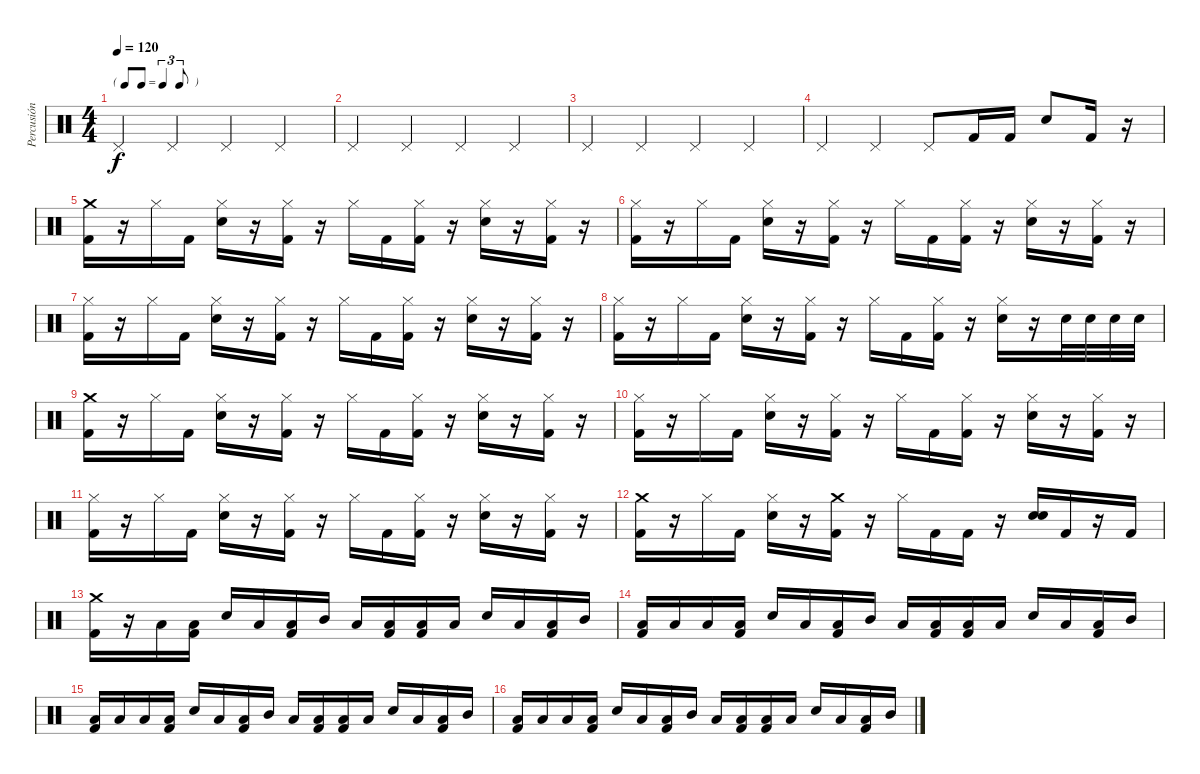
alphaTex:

\track ("Percusión" "Percusión") {instrument percussion}
\staff {score}
\articulation defaults
\ts (4 4)
\tf triplet8th
\tempo 120
\clef neutral
\ks c "Pedal Hi-Hat (hit)".4{dy f} "Pedal Hi-Hat (hit)".4 "Pedal Hi-Hat (hit)".4 "Pedal Hi-Hat (hit)".4
|
"Pedal Hi-Hat (hit)".4 "Pedal Hi-Hat (hit)".4 "Pedal Hi-Hat (hit)".4 "Pedal Hi-Hat (hit)".4 |
"Pedal Hi-Hat (hit)".4 "Pedal Hi-Hat (hit)".4 "Pedal Hi-Hat (hit)".4 "Pedal Hi-Hat (hit)".4 |
"Pedal Hi-Hat (hit)".4 "Pedal Hi-Hat (hit)".4 "Pedal Hi-Hat (hit)".8 "Kick (hit) 2".16 "Kick (hit) 2".16 "Snare (hit) 2".8 "Kick (hit) 2".16 r.16 |
("Crash medium (hit)" "Kick (hit) 2").16 r.16 "Hi-Hat (closed)".16 "Kick (hit) 2".16 ("Hi-Hat (closed)" "Snare (hit) 2").16 r.16 ("Hi-Hat (closed)" "Kick (hit) 2").16 r.16 "Hi-Hat (closed)".16 "Kick (hit) 2".16 ("Hi-Hat (closed)" "Kick (hit) 2").16 r.16 ("Hi-Hat (closed)" "Snare (hit) 2").16 r.16 ("Hi-Hat (closed)" "Kick (hit) 2").16 r.16 |
("Hi-Hat (closed)" "Kick (hit) 2").16 r.16 "Hi-Hat (closed)".16 "Kick (hit) 2".16 ("Hi-Hat (closed)" "Snare (hit) 2").16 r.16 ("Hi-Hat (closed)" "Kick (hit) 2").16 r.16 "Hi-Hat (closed)".16 "Kick (hit) 2".16 ("Hi-Hat (closed)" "Kick (hit) 2").16 r.16 ("Hi-Hat (closed)" "Snare (hit) 2").16 r.16 ("Hi-Hat (closed)" "Kick (hit) 2").16 r.16 |
("Hi-Hat (closed)" "Kick (hit) 2").16 r.16 "Hi-Hat (closed)".16 "Kick (hit) 2".16 ("Hi-Hat (closed)" "Snare (hit) 2").16 r.16 ("Hi-Hat (closed)" "Kick (hit) 2").16 r.16 "Hi-Hat (closed)".16 "Kick (hit) 2".16 ("Hi-Hat (closed)" "Kick (hit) 2").16 r.16 ("Hi-Hat (closed)" "Snare (hit) 2").16 r.16 ("Hi-Hat (closed)" "Kick (hit) 2").16 r.16 |
("Hi-Hat (closed)" "Kick (hit) 2").16 r.16 "Hi-Hat (closed)".16 "Kick (hit) 2".16 ("Hi-Hat (closed)" "Snare (hit) 2").16 r.16 ("Hi-Hat (closed)" "Kick (hit) 2").16 r.16 "Hi-Hat (closed)".16 "Kick (hit) 2".16 ("Hi-Hat (closed)" "Kick (hit) 2").16 r.16 ("Hi-Hat (closed)" "Snare (hit) 2").16 r.16 "Snare (hit) 2".32 "Snare (hit) 2".32 "Snare (hit) 2".32 "Snare (hit) 2".32 |
("Crash medium (hit)" "Kick (hit) 2").16 r.16 "Hi-Hat (closed)".16 "Kick (hit) 2".16 ("Hi-Hat (closed)" "Snare (hit) 2").16 r.16 ("Hi-Hat (closed)" "Kick (hit) 2").16 r.16 "Hi-Hat (closed)".16 "Kick (hit) 2".16 ("Hi-Hat (closed)" "Kick (hit) 2").16 r.16 ("Hi-Hat (closed)" "Snare (hit) 2").16 r.16 ("Hi-Hat (closed)" "Kick (hit) 2").16 r.16 |
("Hi-Hat (closed)" "Kick (hit) 2").16 r.16 "Hi-Hat (closed)".16 "Kick (hit) 2".16 ("Hi-Hat (closed)" "Snare (hit) 2").16 r.16 ("Hi-Hat (closed)" "Kick (hit) 2").16 r.16 "Hi-Hat (closed)".16 "Kick (hit) 2".16 ("Hi-Hat (closed)" "Kick (hit) 2").16 r.16 ("Hi-Hat (closed)" "Snare (hit) 2").16 r.16 ("Hi-Hat (closed)" "Kick (hit) 2").16 r.16 |
("Hi-Hat (closed)" "Kick (hit) 2").16 r.16 "Hi-Hat (closed)".16 "Kick (hit) 2".16 ("Hi-Hat (closed)" "Snare (hit) 2").16 r.16 ("Hi-Hat (closed)" "Kick (hit) 2").16 r.16 "Hi-Hat (closed)".16 "Kick (hit) 2".16 ("Hi-Hat (closed)" "Kick (hit) 2").16 r.16 ("Hi-Hat (closed)" "Snare (hit) 2").16 r.16 ("Hi-Hat (closed)" "Kick (hit) 2").16 r.16 |
("Crash medium (hit)" "Kick (hit) 2").16 r.16 "Hi-Hat (closed)".16 "Kick (hit) 2".16 ("Hi-Hat (closed)" "Snare (hit) 2").16 r.16 ("Crash medium (hit)" "Kick (hit) 2").16 r.16 "Hi-Hat (closed)".16 "Kick (hit) 2".16 "Kick (hit) 2".16 r.16 ("Snare (hit) 2" "Snare (hit) 2").16 "Kick (hit) 2".16 r.16 "Kick (hit) 2".16 |
("Crash medium (hit)" "Kick (hit) 2").16 r.16 "Low Tom (hit)".16 ("Low Tom (hit)" "Kick (hit) 2").16 "Snare (hit) 2".16 "Low Tom (hit)".16 ("Low Tom (hit)" "Kick (hit) 2").16 "Mid Tom (hit)".16 "Low Tom (hit)".16 ("Low Tom (hit)" "Kick (hit) 2").16 ("Low Tom (hit)" "Kick (hit) 2").16 "Low Tom (hit)".16 "Snare (hit) 2".16 "Low Tom (hit)".16 ("Low Tom (hit)" "Kick (hit) 2").16 "Mid Tom (hit)".16 |
("Low Tom (hit)" "Kick (hit) 2").16 "Low Tom (hit)".16 "Low Tom (hit)".16 ("Low Tom (hit)" "Kick (hit) 2").16 "Snare (hit) 2".16 "Low Tom (hit)".16 ("Low Tom (hit)" "Kick (hit) 2").16 "Mid Tom (hit)".16 "Low Tom (hit)".16 ("Low Tom (hit)" "Kick (hit) 2").16 ("Low Tom (hit)" "Kick (hit) 2").16 "Low Tom (hit)".16 "Snare (hit) 2".16 "Low Tom (hit)".16 ("Low Tom (hit)" "Kick (hit) 2").16 "Mid Tom (hit)".16 |
("Low Tom (hit)" "Kick (hit) 2").16 "Low Tom (hit)".16 "Low Tom (hit)".16 ("Low Tom (hit)" "Kick (hit) 2").16 "Snare (hit) 2".16 "Low Tom (hit)".16 ("Low Tom (hit)" "Kick (hit) 2").16 "Mid Tom (hit)".16 "Low Tom (hit)".16 ("Low Tom (hit)" "Kick (hit) 2").16 ("Low Tom (hit)" "Kick (hit) 2").16 "Low Tom (hit)".16 "Snare (hit) 2".16 "Low Tom (hit)".16 ("Low Tom (hit)" "Kick (hit) 2").16 "Mid Tom (hit)".16 |
("Low Tom (hit)" "Kick (hit) 2").16 "Low Tom (hit)".16 "Low Tom (hit)".16 ("Low Tom (hit)" "Kick (hit) 2").16 "Snare (hit) 2".16 "Low Tom (hit)".16 ("Low Tom (hit)" "Kick (hit) 2").16 "Mid Tom (hit)".16 "Low Tom (hit)".16 ("Low Tom (hit)" "Kick (hit) 2").16 ("Low Tom (hit)" "Kick (hit) 2").16 "Low Tom (hit)".16 "Snare (hit) 2".16 "Low Tom (hit)".16 ("Low Tom (hit)" "Kick (hit) 2").16 "Mid Tom (hit)".16
